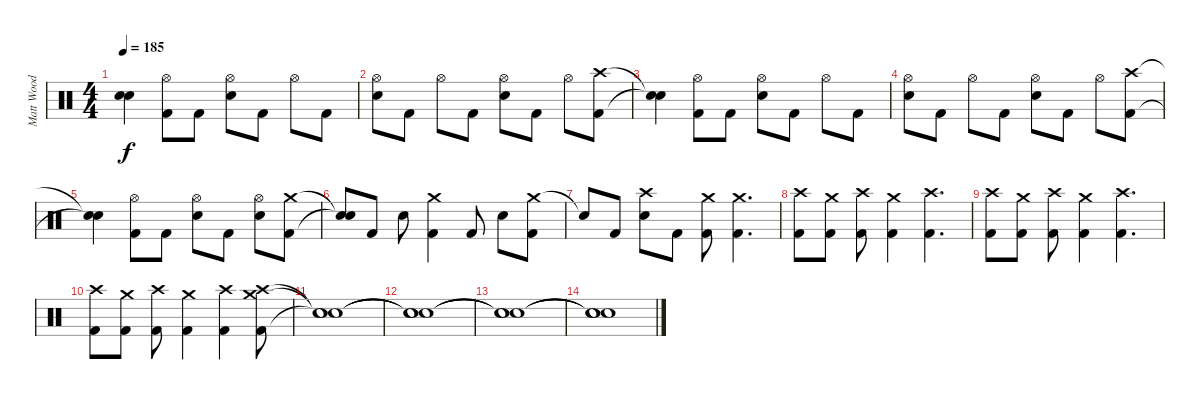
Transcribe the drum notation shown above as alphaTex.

\track ("Matt Wood" "Matt Wood") {instrument percussion}
\staff {score}
\articulation defaults
\ts (4 4)
\tempo 185
\clef neutral
\ks c
("Snare (hit)"{t} "Snare (hit)"{t}).4{dy f} ("Hi-Hat (open)" "Kick (hit) 2").8 "Kick (hit) 2".8 ("Hi-Hat (open)" "Snare (hit) 2").8 "Kick (hit) 2".8 "Hi-Hat (open)".8 "Kick (hit) 2".8 |
("Hi-Hat (open)" "Snare (hit) 2").8 "Kick (hit) 2".8 "Hi-Hat (open)".8 "Kick (hit) 2".8 ("Hi-Hat (open)" "Snare (hit) 2").8 "Kick (hit) 2".8 "Hi-Hat (open)".8 ("Crash high (hit)" "Kick (hit) 2").8 |
("Snare (hit)"{t} "Snare (hit)"{t}).4 ("Hi-Hat (open)" "Kick (hit) 2").8 "Kick (hit) 2".8 ("Hi-Hat (open)" "Snare (hit) 2").8 "Kick (hit) 2".8 "Hi-Hat (open)".8 "Kick (hit) 2".8 |
("Hi-Hat (open)" "Snare (hit) 2").8 "Kick (hit) 2".8 "Hi-Hat (open)".8 "Kick (hit) 2".8 ("Hi-Hat (open)" "Snare (hit) 2").8 "Kick (hit) 2".8 "Hi-Hat (open)".8 ("Crash high (hit)" "Kick (hit) 2").8 |
("Snare (hit)"{t} "Snare (hit)"{t}).4 ("Hi-Hat (open)" "Kick (hit) 2").8 "Kick (hit) 2".8 ("Hi-Hat (open)" "Snare (hit) 2").8 "Kick (hit) 2".8 ("Hi-Hat (open)" "Snare (hit) 2").8 ("Crash medium (hit)" "Kick (hit) 2").8 |
("Snare (hit)"{t} "Snare (hit)"{t}).8 "Kick (hit) 2".8 "Snare (hit) 2".8 ("Crash medium (hit)" "Kick (hit) 2").4 "Kick (hit) 2".8 "Snare (hit) 2".8 ("Crash medium (hit)" "Kick (hit) 2").8 |
"Snare (hit)"{t}.8 "Kick (hit) 2".8 ("Crash high (hit)" "Snare (hit) 2").8 "Kick (hit) 2".8 ("Crash medium (hit)" "Kick (hit) 2").8 ("Crash medium (hit)" "Kick (hit) 2").4{d} |
("Crash high (hit)" "Kick (hit) 2").8 ("Crash medium (hit)" "Kick (hit) 2").8 ("Crash high (hit)" "Kick (hit) 2").8 ("Crash medium (hit)" "Kick (hit) 2").4 ("Crash high (hit)" "Kick (hit) 2").4{d} |
("Crash high (hit)" "Kick (hit) 2").8 ("Crash medium (hit)" "Kick (hit) 2").8 ("Crash high (hit)" "Kick (hit) 2").8 ("Crash medium (hit)" "Kick (hit) 2").4 ("Crash high (hit)" "Kick (hit) 2").4{d} |
("Crash high (hit)" "Kick (hit) 2").8 ("Crash medium (hit)" "Kick (hit) 2").8 ("Crash high (hit)" "Kick (hit) 2").8 ("Crash medium (hit)" "Kick (hit) 2").4 ("Crash high (hit)" "Kick (hit) 2").4 ("Crash medium (hit)" "Crash high (hit)" "Kick (hit) 2").8 |
("Snare (hit)"{t} "Snare (hit)"{t} "Snare (hit)"{t}).1 |
("Snare (hit)"{t} "Snare (hit)"{t} "Snare (hit)"{t}).1 |
("Snare (hit)"{t} "Snare (hit)"{t} "Snare (hit)"{t}).1 |
("Snare (hit)"{t} "Snare (hit)"{t} "Snare (hit)"{t}).1
